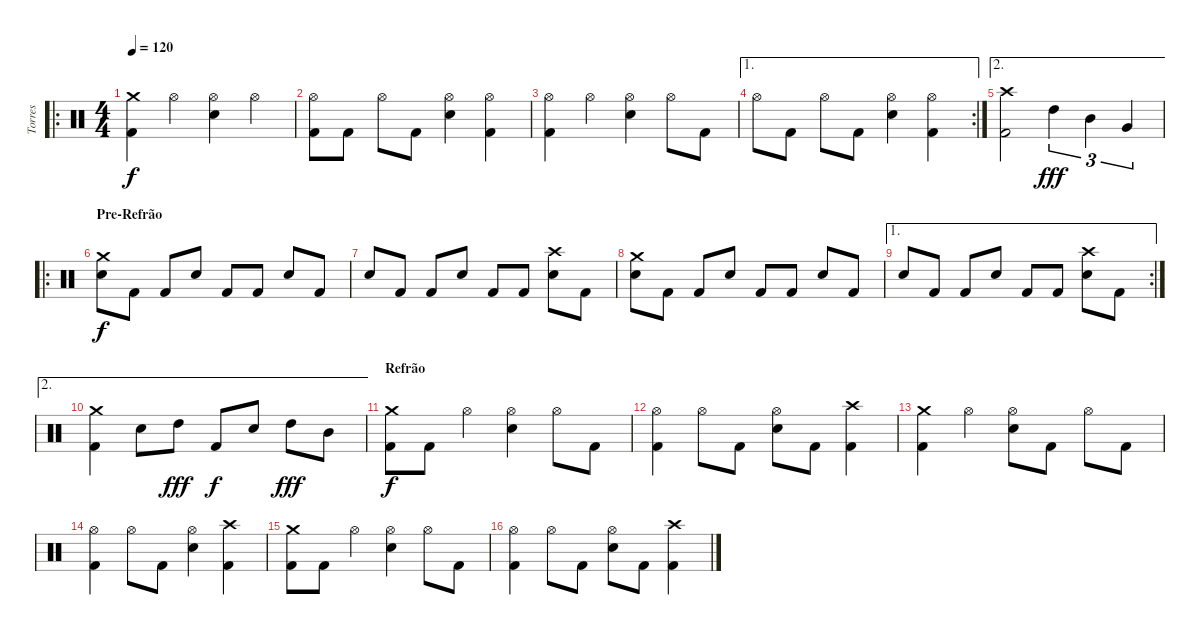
\track ("Torres" "Torres") {instrument percussion}
\staff {score}
\articulation defaults
\ro
\ts (4 4)
\tempo 120
\clef neutral
\ks c
("Crash medium (hit)" "Kick (hit) 2").4{dy f} "Hi-Hat (open)".4 ("Hi-Hat (open)" "Electric Snare (hit)").4 "Hi-Hat (open)".4 |
("Hi-Hat (open)" "Kick (hit) 2").8 "Kick (hit) 2".8 "Hi-Hat (open)".8 "Kick (hit) 2".8 ("Hi-Hat (open)" "Electric Snare (hit)").4 ("Hi-Hat (open)" "Kick (hit) 2").4 |
("Hi-Hat (open)" "Kick (hit) 2").4 "Hi-Hat (open)".4 ("Hi-Hat (open)" "Electric Snare (hit)").4 "Hi-Hat (open)".8 "Kick (hit) 2".8 |
\ae 1
\rc 2 "Hi-Hat (open)".8 "Kick (hit) 2".8 "Hi-Hat (open)".8 "Kick (hit) 2".8
("Hi-Hat (open)" "Electric Snare (hit)").4 ("Hi-Hat (open)" "Kick (hit) 2").4 |
\ae 2
("Crash high (hit)" "Kick (hit) 2").2 "High Tom (hit)".4{tu (3 2) dy fff} "Mid Tom (hit)".4{tu (3 2)} "Very Low Tom (hit)".4{tu (3 2)} |
\ro
\section ("" "Pre-Refrão")
("Crash medium (hit)" "Electric Snare (hit)").8{dy f} "Kick (hit) 2".8 "Kick (hit) 2".8 "Electric Snare (hit)".8 "Kick (hit) 2".8 "Kick (hit) 2".8 "Electric Snare (hit)".8 "Kick (hit) 2".8 |
"Electric Snare (hit)".8 "Kick (hit) 2".8 "Kick (hit) 2".8 "Electric Snare (hit)".8 "Kick (hit) 2".8 "Kick (hit) 2".8 ("Crash high (hit)" "Electric Snare (hit)").8 "Kick (hit) 2".8 |
("Crash medium (hit)" "Electric Snare (hit)").8 "Kick (hit) 2".8 "Kick (hit) 2".8 "Electric Snare (hit)".8 "Kick (hit) 2".8 "Kick (hit) 2".8 "Electric Snare (hit)".8 "Kick (hit) 2".8 |
\ae 1
\rc 2 "Electric Snare (hit)".8 "Kick (hit) 2".8 "Kick (hit) 2".8 "Electric Snare (hit)".8 "Kick (hit) 2".8 "Kick (hit) 2".8
("Crash high (hit)" "Electric Snare (hit)").8 "Kick (hit) 2".8 |
\ae 2
("Crash medium (hit)" "Kick (hit) 2").4 "Electric Snare (hit)".8 "High Tom (hit)".8{dy fff} "Kick (hit) 2".8{dy f} "Electric Snare (hit)".8 "High Tom (hit)".8{dy fff} "Mid Tom (hit)".8 |
\section ("" "Refrão")
("Crash medium (hit)" "Kick (hit) 2").8{dy f} "Kick (hit) 2".8 "Hi-Hat (open)".4 ("Hi-Hat (open)" "Electric Snare (hit)").4 "Hi-Hat (open)".8 "Kick (hit) 2".8 |
("Hi-Hat (open)" "Kick (hit) 2").4 "Hi-Hat (open)".8 "Kick (hit) 2".8 ("Hi-Hat (open)" "Electric Snare (hit)").8 "Kick (hit) 2".8 ("Crash high (hit)" "Kick (hit) 2").4 |
("Crash medium (hit)" "Kick (hit) 2").4 "Hi-Hat (open)".4 ("Hi-Hat (open)" "Electric Snare (hit)").8 "Kick (hit) 2".8 "Hi-Hat (open)".8 "Kick (hit) 2".8 |
("Hi-Hat (open)" "Kick (hit) 2").4 "Hi-Hat (open)".8 "Kick (hit) 2".8 ("Hi-Hat (open)" "Electric Snare (hit)").4 ("Crash high (hit)" "Kick (hit) 2").4 |
("Crash medium (hit)" "Kick (hit) 2").8 "Kick (hit) 2".8 "Hi-Hat (open)".4 ("Hi-Hat (open)" "Electric Snare (hit)").4 "Hi-Hat (open)".8 "Kick (hit) 2".8 |
("Hi-Hat (open)" "Kick (hit) 2").4 "Hi-Hat (open)".8 "Kick (hit) 2".8 ("Hi-Hat (open)" "Electric Snare (hit)").8 "Kick (hit) 2".8 ("Crash high (hit)" "Kick (hit) 2").4
